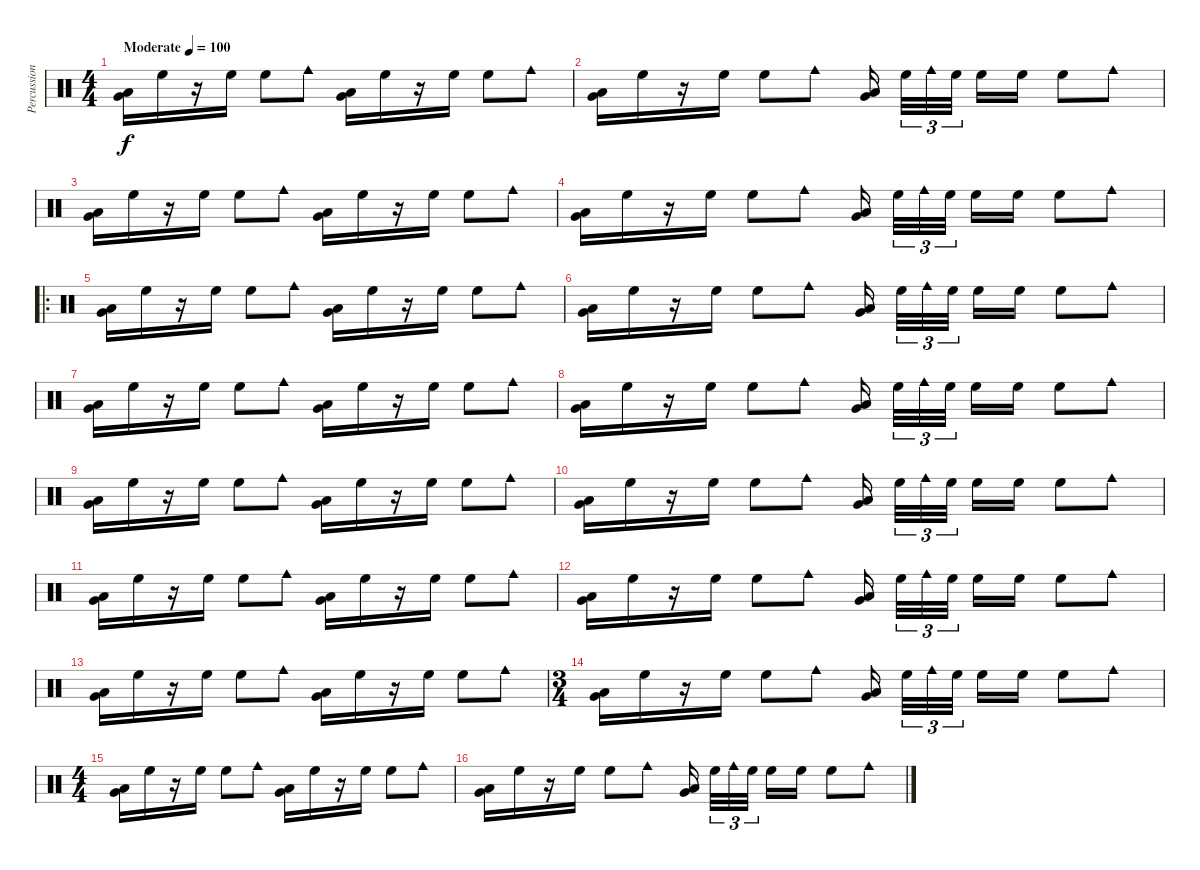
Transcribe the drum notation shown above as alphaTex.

\track ("Percussion" "Percussion") {instrument percussion}
\staff {score}
\articulation defaults
\ts (4 4)
\tempo (100 "Moderate")
\clef neutral
\ks c
("Low Floor Tom (hit)" "Very Low Tom (hit)").16{dy f} "High Floor Tom (hit)".16 r.16 "High Floor Tom (hit)".16 "High Floor Tom (hit)".8 "Cowbell medium (hit)".8 ("Low Floor Tom (hit)" "Very Low Tom (hit)").16 "High Floor Tom (hit)".16 r.16 "High Floor Tom (hit)".16 "High Floor Tom (hit)".8 "Cowbell medium (hit)".8 |
("Low Floor Tom (hit)" "Very Low Tom (hit)").16 "High Floor Tom (hit)".16 r.16 "High Floor Tom (hit)".16 "High Floor Tom (hit)".8 "Cowbell medium (hit)".8 ("Low Floor Tom (hit)" "Very Low Tom (hit)").16{beam splitsecondary} "High Floor Tom (hit)".32{tu (3 2)} "Cowbell medium (hit)".32{tu (3 2)} "High Floor Tom (hit)".32{tu (3 2) beam splitsecondary} "High Floor Tom (hit)".16 "High Floor Tom (hit)".16 "High Floor Tom (hit)".8 "Cowbell medium (hit)".8 |
("Low Floor Tom (hit)" "Very Low Tom (hit)").16 "High Floor Tom (hit)".16 r.16 "High Floor Tom (hit)".16 "High Floor Tom (hit)".8 "Cowbell medium (hit)".8 ("Low Floor Tom (hit)" "Very Low Tom (hit)").16 "High Floor Tom (hit)".16 r.16 "High Floor Tom (hit)".16 "High Floor Tom (hit)".8 "Cowbell medium (hit)".8 |
("Low Floor Tom (hit)" "Very Low Tom (hit)").16 "High Floor Tom (hit)".16 r.16 "High Floor Tom (hit)".16 "High Floor Tom (hit)".8 "Cowbell medium (hit)".8 ("Low Floor Tom (hit)" "Very Low Tom (hit)").16{beam splitsecondary} "High Floor Tom (hit)".32{tu (3 2)} "Cowbell medium (hit)".32{tu (3 2)} "High Floor Tom (hit)".32{tu (3 2) beam splitsecondary} "High Floor Tom (hit)".16 "High Floor Tom (hit)".16 "High Floor Tom (hit)".8 "Cowbell medium (hit)".8 |
\ro
("Low Floor Tom (hit)" "Very Low Tom (hit)").16 "High Floor Tom (hit)".16 r.16 "High Floor Tom (hit)".16 "High Floor Tom (hit)".8 "Cowbell medium (hit)".8 ("Low Floor Tom (hit)" "Very Low Tom (hit)").16 "High Floor Tom (hit)".16 r.16 "High Floor Tom (hit)".16 "High Floor Tom (hit)".8 "Cowbell medium (hit)".8 |
("Low Floor Tom (hit)" "Very Low Tom (hit)").16 "High Floor Tom (hit)".16 r.16 "High Floor Tom (hit)".16 "High Floor Tom (hit)".8 "Cowbell medium (hit)".8 ("Low Floor Tom (hit)" "Very Low Tom (hit)").16{beam splitsecondary} "High Floor Tom (hit)".32{tu (3 2)} "Cowbell medium (hit)".32{tu (3 2)} "High Floor Tom (hit)".32{tu (3 2) beam splitsecondary} "High Floor Tom (hit)".16 "High Floor Tom (hit)".16 "High Floor Tom (hit)".8 "Cowbell medium (hit)".8 |
("Low Floor Tom (hit)" "Very Low Tom (hit)").16 "High Floor Tom (hit)".16 r.16 "High Floor Tom (hit)".16 "High Floor Tom (hit)".8 "Cowbell medium (hit)".8 ("Low Floor Tom (hit)" "Very Low Tom (hit)").16 "High Floor Tom (hit)".16 r.16 "High Floor Tom (hit)".16 "High Floor Tom (hit)".8 "Cowbell medium (hit)".8 |
("Low Floor Tom (hit)" "Very Low Tom (hit)").16 "High Floor Tom (hit)".16 r.16 "High Floor Tom (hit)".16 "High Floor Tom (hit)".8 "Cowbell medium (hit)".8 ("Low Floor Tom (hit)" "Very Low Tom (hit)").16{beam splitsecondary} "High Floor Tom (hit)".32{tu (3 2)} "Cowbell medium (hit)".32{tu (3 2)} "High Floor Tom (hit)".32{tu (3 2) beam splitsecondary} "High Floor Tom (hit)".16 "High Floor Tom (hit)".16 "High Floor Tom (hit)".8 "Cowbell medium (hit)".8 |
("Low Floor Tom (hit)" "Very Low Tom (hit)").16 "High Floor Tom (hit)".16 r.16 "High Floor Tom (hit)".16 "High Floor Tom (hit)".8 "Cowbell medium (hit)".8 ("Low Floor Tom (hit)" "Very Low Tom (hit)").16 "High Floor Tom (hit)".16 r.16 "High Floor Tom (hit)".16 "High Floor Tom (hit)".8 "Cowbell medium (hit)".8 |
("Low Floor Tom (hit)" "Very Low Tom (hit)").16 "High Floor Tom (hit)".16 r.16 "High Floor Tom (hit)".16 "High Floor Tom (hit)".8 "Cowbell medium (hit)".8 ("Low Floor Tom (hit)" "Very Low Tom (hit)").16{beam splitsecondary} "High Floor Tom (hit)".32{tu (3 2)} "Cowbell medium (hit)".32{tu (3 2)} "High Floor Tom (hit)".32{tu (3 2) beam splitsecondary} "High Floor Tom (hit)".16 "High Floor Tom (hit)".16 "High Floor Tom (hit)".8 "Cowbell medium (hit)".8 |
("Low Floor Tom (hit)" "Very Low Tom (hit)").16 "High Floor Tom (hit)".16 r.16 "High Floor Tom (hit)".16 "High Floor Tom (hit)".8 "Cowbell medium (hit)".8 ("Low Floor Tom (hit)" "Very Low Tom (hit)").16 "High Floor Tom (hit)".16 r.16 "High Floor Tom (hit)".16 "High Floor Tom (hit)".8 "Cowbell medium (hit)".8 |
("Low Floor Tom (hit)" "Very Low Tom (hit)").16 "High Floor Tom (hit)".16 r.16 "High Floor Tom (hit)".16 "High Floor Tom (hit)".8 "Cowbell medium (hit)".8 ("Low Floor Tom (hit)" "Very Low Tom (hit)").16{beam splitsecondary} "High Floor Tom (hit)".32{tu (3 2)} "Cowbell medium (hit)".32{tu (3 2)} "High Floor Tom (hit)".32{tu (3 2) beam splitsecondary} "High Floor Tom (hit)".16 "High Floor Tom (hit)".16 "High Floor Tom (hit)".8 "Cowbell medium (hit)".8 |
("Low Floor Tom (hit)" "Very Low Tom (hit)").16 "High Floor Tom (hit)".16 r.16 "High Floor Tom (hit)".16 "High Floor Tom (hit)".8 "Cowbell medium (hit)".8 ("Low Floor Tom (hit)" "Very Low Tom (hit)").16 "High Floor Tom (hit)".16 r.16 "High Floor Tom (hit)".16 "High Floor Tom (hit)".8 "Cowbell medium (hit)".8 |
\ts (3 4)
("Low Floor Tom (hit)" "Very Low Tom (hit)").16 "High Floor Tom (hit)".16 r.16 "High Floor Tom (hit)".16 "High Floor Tom (hit)".8 "Cowbell medium (hit)".8 ("Low Floor Tom (hit)" "Very Low Tom (hit)").16{beam splitsecondary} "High Floor Tom (hit)".32{tu (3 2)} "Cowbell medium (hit)".32{tu (3 2)} "High Floor Tom (hit)".32{tu (3 2) beam splitsecondary} "High Floor Tom (hit)".16 "High Floor Tom (hit)".16 "High Floor Tom (hit)".8 "Cowbell medium (hit)".8 |
\ts (4 4)
("Low Floor Tom (hit)" "Very Low Tom (hit)").16 "High Floor Tom (hit)".16 r.16 "High Floor Tom (hit)".16 "High Floor Tom (hit)".8 "Cowbell medium (hit)".8 ("Low Floor Tom (hit)" "Very Low Tom (hit)").16 "High Floor Tom (hit)".16 r.16 "High Floor Tom (hit)".16 "High Floor Tom (hit)".8 "Cowbell medium (hit)".8 |
("Low Floor Tom (hit)" "Very Low Tom (hit)").16 "High Floor Tom (hit)".16 r.16 "High Floor Tom (hit)".16 "High Floor Tom (hit)".8 "Cowbell medium (hit)".8 ("Low Floor Tom (hit)" "Very Low Tom (hit)").16{beam splitsecondary} "High Floor Tom (hit)".32{tu (3 2)} "Cowbell medium (hit)".32{tu (3 2)} "High Floor Tom (hit)".32{tu (3 2) beam splitsecondary} "High Floor Tom (hit)".16 "High Floor Tom (hit)".16 "High Floor Tom (hit)".8 "Cowbell medium (hit)".8
